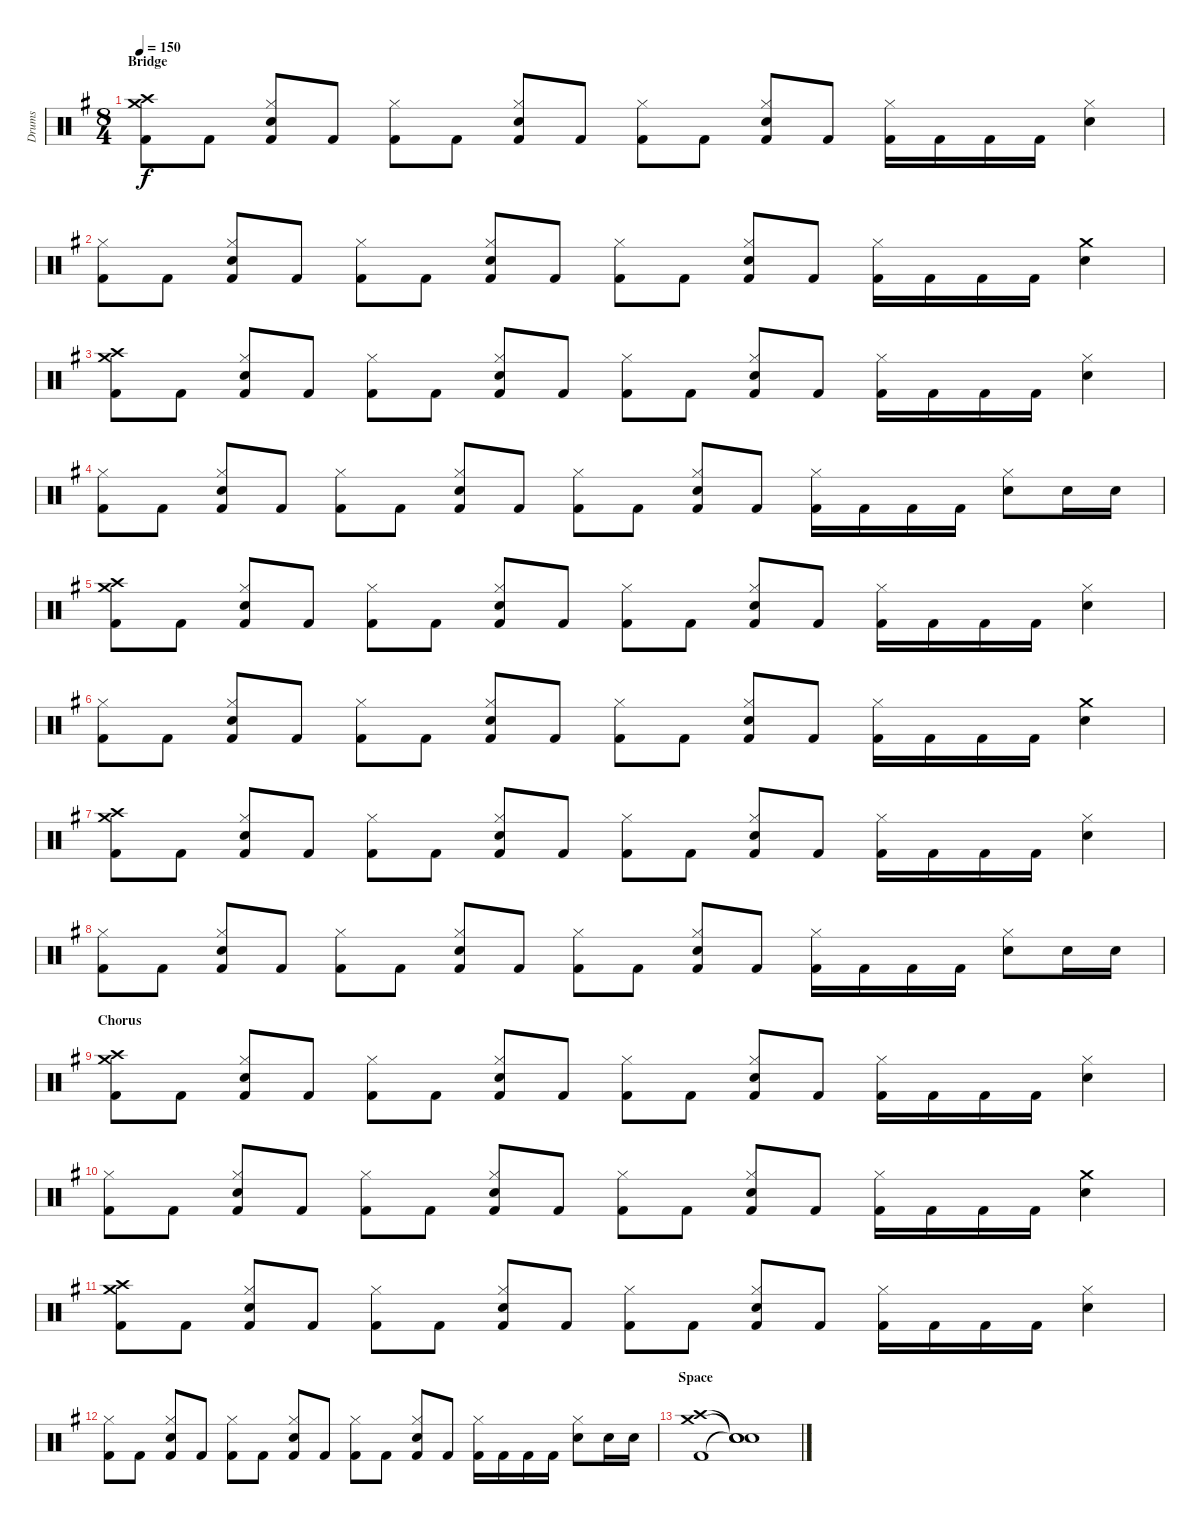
\track ("Drums" "Drums") {instrument percussion}
\staff {score}
\articulation defaults
\ts (8 4)
\section ("" "Bridge")
\tempo 150
\clef neutral
\ks g
("Crash medium (hit)" "Crash high (hit)" "Kick (hit) 2").8{dy f} "Kick (hit) 2".8 ("Hi-Hat (closed)" "Snare (hit) 2" "Kick (hit) 2").8 "Kick (hit) 2".8 ("Hi-Hat (closed)" "Kick (hit) 2").8 "Kick (hit) 2".8 ("Hi-Hat (closed)" "Snare (hit) 2" "Kick (hit) 2").8 "Kick (hit) 2".8 ("Hi-Hat (closed)" "Kick (hit) 2").8 "Kick (hit) 2".8 ("Hi-Hat (closed)" "Snare (hit) 2" "Kick (hit) 2").8 "Kick (hit) 2".8 ("Hi-Hat (closed)" "Kick (hit) 2").16 "Kick (hit) 2".16 "Kick (hit) 2".16 "Kick (hit) 2".16 ("Hi-Hat (closed)" "Snare (hit) 2").4 |
("Hi-Hat (closed)" "Kick (hit) 2").8 "Kick (hit) 2".8 ("Hi-Hat (closed)" "Snare (hit) 2" "Kick (hit) 2").8 "Kick (hit) 2".8 ("Hi-Hat (closed)" "Kick (hit) 2").8 "Kick (hit) 2".8 ("Hi-Hat (closed)" "Snare (hit) 2" "Kick (hit) 2").8 "Kick (hit) 2".8 ("Hi-Hat (closed)" "Kick (hit) 2").8 "Kick (hit) 2".8 ("Hi-Hat (closed)" "Snare (hit) 2" "Kick (hit) 2").8 "Kick (hit) 2".8 ("Hi-Hat (closed)" "Kick (hit) 2").16 "Kick (hit) 2".16 "Kick (hit) 2".16 "Kick (hit) 2".16 ("Crash medium (hit)" "Snare (hit) 2").4 |
("Crash medium (hit)" "Crash high (hit)" "Kick (hit) 2").8 "Kick (hit) 2".8 ("Hi-Hat (closed)" "Snare (hit) 2" "Kick (hit) 2").8 "Kick (hit) 2".8 ("Hi-Hat (closed)" "Kick (hit) 2").8 "Kick (hit) 2".8 ("Hi-Hat (closed)" "Snare (hit) 2" "Kick (hit) 2").8 "Kick (hit) 2".8 ("Hi-Hat (closed)" "Kick (hit) 2").8 "Kick (hit) 2".8 ("Hi-Hat (closed)" "Snare (hit) 2" "Kick (hit) 2").8 "Kick (hit) 2".8 ("Hi-Hat (closed)" "Kick (hit) 2").16 "Kick (hit) 2".16 "Kick (hit) 2".16 "Kick (hit) 2".16 ("Hi-Hat (closed)" "Snare (hit) 2").4 |
("Hi-Hat (closed)" "Kick (hit) 2").8 "Kick (hit) 2".8 ("Hi-Hat (closed)" "Snare (hit) 2" "Kick (hit) 2").8 "Kick (hit) 2".8 ("Hi-Hat (closed)" "Kick (hit) 2").8 "Kick (hit) 2".8 ("Hi-Hat (closed)" "Snare (hit) 2" "Kick (hit) 2").8 "Kick (hit) 2".8 ("Hi-Hat (closed)" "Kick (hit) 2").8 "Kick (hit) 2".8 ("Hi-Hat (closed)" "Snare (hit) 2" "Kick (hit) 2").8 "Kick (hit) 2".8 ("Hi-Hat (closed)" "Kick (hit) 2").16 "Kick (hit) 2".16 "Kick (hit) 2".16 "Kick (hit) 2".16 ("Hi-Hat (closed)" "Snare (hit) 2").8 "Snare (hit) 2".16 "Snare (hit) 2".16 |
("Crash medium (hit)" "Crash high (hit)" "Kick (hit) 2").8 "Kick (hit) 2".8 ("Hi-Hat (closed)" "Snare (hit) 2" "Kick (hit) 2").8 "Kick (hit) 2".8 ("Hi-Hat (closed)" "Kick (hit) 2").8 "Kick (hit) 2".8 ("Hi-Hat (closed)" "Snare (hit) 2" "Kick (hit) 2").8 "Kick (hit) 2".8 ("Hi-Hat (closed)" "Kick (hit) 2").8 "Kick (hit) 2".8 ("Hi-Hat (closed)" "Snare (hit) 2" "Kick (hit) 2").8 "Kick (hit) 2".8 ("Hi-Hat (closed)" "Kick (hit) 2").16 "Kick (hit) 2".16 "Kick (hit) 2".16 "Kick (hit) 2".16 ("Hi-Hat (closed)" "Snare (hit) 2").4 |
("Hi-Hat (closed)" "Kick (hit) 2").8 "Kick (hit) 2".8 ("Hi-Hat (closed)" "Snare (hit) 2" "Kick (hit) 2").8 "Kick (hit) 2".8 ("Hi-Hat (closed)" "Kick (hit) 2").8 "Kick (hit) 2".8 ("Hi-Hat (closed)" "Snare (hit) 2" "Kick (hit) 2").8 "Kick (hit) 2".8 ("Hi-Hat (closed)" "Kick (hit) 2").8 "Kick (hit) 2".8 ("Hi-Hat (closed)" "Snare (hit) 2" "Kick (hit) 2").8 "Kick (hit) 2".8 ("Hi-Hat (closed)" "Kick (hit) 2").16 "Kick (hit) 2".16 "Kick (hit) 2".16 "Kick (hit) 2".16 ("Crash medium (hit)" "Snare (hit) 2").4 |
("Crash medium (hit)" "Crash high (hit)" "Kick (hit) 2").8 "Kick (hit) 2".8 ("Hi-Hat (closed)" "Snare (hit) 2" "Kick (hit) 2").8 "Kick (hit) 2".8 ("Hi-Hat (closed)" "Kick (hit) 2").8 "Kick (hit) 2".8 ("Hi-Hat (closed)" "Snare (hit) 2" "Kick (hit) 2").8 "Kick (hit) 2".8 ("Hi-Hat (closed)" "Kick (hit) 2").8 "Kick (hit) 2".8 ("Hi-Hat (closed)" "Snare (hit) 2" "Kick (hit) 2").8 "Kick (hit) 2".8 ("Hi-Hat (closed)" "Kick (hit) 2").16 "Kick (hit) 2".16 "Kick (hit) 2".16 "Kick (hit) 2".16 ("Hi-Hat (closed)" "Snare (hit) 2").4 |
("Hi-Hat (closed)" "Kick (hit) 2").8 "Kick (hit) 2".8 ("Hi-Hat (closed)" "Snare (hit) 2" "Kick (hit) 2").8 "Kick (hit) 2".8 ("Hi-Hat (closed)" "Kick (hit) 2").8 "Kick (hit) 2".8 ("Hi-Hat (closed)" "Snare (hit) 2" "Kick (hit) 2").8 "Kick (hit) 2".8 ("Hi-Hat (closed)" "Kick (hit) 2").8 "Kick (hit) 2".8 ("Hi-Hat (closed)" "Snare (hit) 2" "Kick (hit) 2").8 "Kick (hit) 2".8 ("Hi-Hat (closed)" "Kick (hit) 2").16 "Kick (hit) 2".16 "Kick (hit) 2".16 "Kick (hit) 2".16 ("Hi-Hat (closed)" "Snare (hit) 2").8 "Snare (hit) 2".16 "Snare (hit) 2".16 |
\section ("" "Chorus")
("Crash medium (hit)" "Crash high (hit)" "Kick (hit) 2").8 "Kick (hit) 2".8 ("Hi-Hat (closed)" "Snare (hit) 2" "Kick (hit) 2").8 "Kick (hit) 2".8 ("Hi-Hat (closed)" "Kick (hit) 2").8 "Kick (hit) 2".8 ("Hi-Hat (closed)" "Snare (hit) 2" "Kick (hit) 2").8 "Kick (hit) 2".8 ("Hi-Hat (closed)" "Kick (hit) 2").8 "Kick (hit) 2".8 ("Hi-Hat (closed)" "Snare (hit) 2" "Kick (hit) 2").8 "Kick (hit) 2".8 ("Hi-Hat (closed)" "Kick (hit) 2").16 "Kick (hit) 2".16 "Kick (hit) 2".16 "Kick (hit) 2".16 ("Hi-Hat (closed)" "Snare (hit) 2").4 |
("Hi-Hat (closed)" "Kick (hit) 2").8 "Kick (hit) 2".8 ("Hi-Hat (closed)" "Snare (hit) 2" "Kick (hit) 2").8 "Kick (hit) 2".8 ("Hi-Hat (closed)" "Kick (hit) 2").8 "Kick (hit) 2".8 ("Hi-Hat (closed)" "Snare (hit) 2" "Kick (hit) 2").8 "Kick (hit) 2".8 ("Hi-Hat (closed)" "Kick (hit) 2").8 "Kick (hit) 2".8 ("Hi-Hat (closed)" "Snare (hit) 2" "Kick (hit) 2").8 "Kick (hit) 2".8 ("Hi-Hat (closed)" "Kick (hit) 2").16 "Kick (hit) 2".16 "Kick (hit) 2".16 "Kick (hit) 2".16 ("Crash medium (hit)" "Snare (hit) 2").4 |
("Crash medium (hit)" "Crash high (hit)" "Kick (hit) 2").8 "Kick (hit) 2".8 ("Hi-Hat (closed)" "Snare (hit) 2" "Kick (hit) 2").8 "Kick (hit) 2".8 ("Hi-Hat (closed)" "Kick (hit) 2").8 "Kick (hit) 2".8 ("Hi-Hat (closed)" "Snare (hit) 2" "Kick (hit) 2").8 "Kick (hit) 2".8 ("Hi-Hat (closed)" "Kick (hit) 2").8 "Kick (hit) 2".8 ("Hi-Hat (closed)" "Snare (hit) 2" "Kick (hit) 2").8 "Kick (hit) 2".8 ("Hi-Hat (closed)" "Kick (hit) 2").16 "Kick (hit) 2".16 "Kick (hit) 2".16 "Kick (hit) 2".16 ("Hi-Hat (closed)" "Snare (hit) 2").4 |
("Hi-Hat (closed)" "Kick (hit) 2").8 "Kick (hit) 2".8 ("Hi-Hat (closed)" "Snare (hit) 2" "Kick (hit) 2").8 "Kick (hit) 2".8 ("Hi-Hat (closed)" "Kick (hit) 2").8 "Kick (hit) 2".8 ("Hi-Hat (closed)" "Snare (hit) 2" "Kick (hit) 2").8 "Kick (hit) 2".8 ("Hi-Hat (closed)" "Kick (hit) 2").8 "Kick (hit) 2".8 ("Hi-Hat (closed)" "Snare (hit) 2" "Kick (hit) 2").8 "Kick (hit) 2".8 ("Hi-Hat (closed)" "Kick (hit) 2").16 "Kick (hit) 2".16 "Kick (hit) 2".16 "Kick (hit) 2".16 ("Hi-Hat (closed)" "Snare (hit) 2").8 "Snare (hit) 2".16 "Snare (hit) 2".16 |
\section ("" "Space")
("Crash medium (hit)" "Crash high (hit)" "Kick (hit) 2").1 ("Snare (hit)"{t} "Snare (hit)"{t} "Snare (hit)"{t}).1
